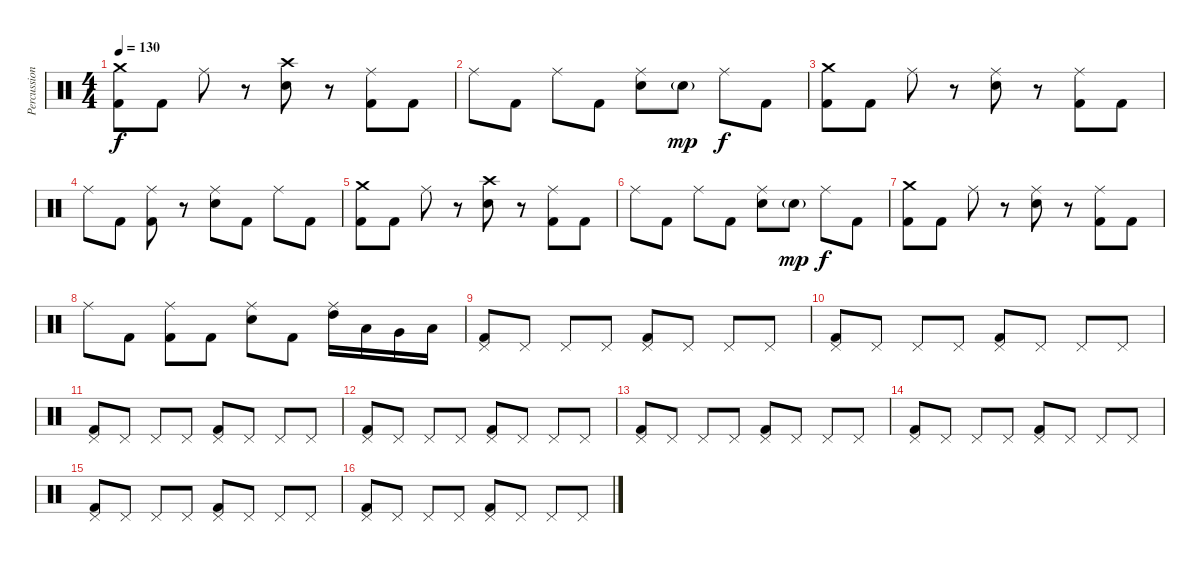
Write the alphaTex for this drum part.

\track ("Percussion" "Percussion") {instrument percussion}
\staff {score}
\articulation defaults
\ts (4 4)
\tempo 130
\clef neutral
\ks c
("Crash medium (hit)" "Kick (hit) 2").8{dy f} "Kick (hit) 2".8 "Ride (middle)".8 r.8 ("Crash high (hit)" "Snare (hit) 2").8 r.8 ("Ride (middle)" "Kick (hit) 2").8 "Kick (hit) 2".8 |
"Ride (middle)".8 "Kick (hit) 2".8 "Ride (middle)".8 "Kick (hit) 2".8 ("Ride (middle)" "Snare (hit) 2").8 "Snare (hit) 2"{g}.8{dy mp} "Ride (middle)".8{dy f} "Kick (hit) 2".8 |
("Crash medium (hit)" "Kick (hit) 2").8 "Kick (hit) 2".8 "Ride (middle)".8 r.8 ("Ride (middle)" "Snare (hit) 2").8 r.8 ("Ride (middle)" "Kick (hit) 2").8 "Kick (hit) 2".8 |
"Ride (middle)".8 "Kick (hit) 2".8 ("Ride (middle)" "Kick (hit) 2").8 r.8 ("Ride (middle)" "Snare (hit) 2").8 "Kick (hit) 2".8 "Ride (middle)".8 "Kick (hit) 2".8 |
("Crash medium (hit)" "Kick (hit) 2").8 "Kick (hit) 2".8 "Ride (middle)".8 r.8 ("Crash high (hit)" "Snare (hit) 2").8 r.8 ("Ride (middle)" "Kick (hit) 2").8 "Kick (hit) 2".8 |
"Ride (middle)".8 "Kick (hit) 2".8 "Ride (middle)".8 "Kick (hit) 2".8 ("Ride (middle)" "Snare (hit) 2").8 "Snare (hit) 2"{g}.8{dy mp} "Ride (middle)".8{dy f} "Kick (hit) 2".8 |
("Crash medium (hit)" "Kick (hit) 2").8 "Kick (hit) 2".8 "Ride (middle)".8 r.8 ("Ride (middle)" "Snare (hit) 2").8 r.8 ("Ride (middle)" "Kick (hit) 2").8 "Kick (hit) 2".8 |
"Ride (middle)".8 "Kick (hit) 2".8 ("Ride (middle)" "Kick (hit) 2").8 "Kick (hit) 2".8 ("Ride (middle)" "Snare (hit) 2").8 "Kick (hit) 2".8 ("Ride (middle)" "High Tom (hit)").16 "Low Tom (hit)".16 "Very Low Tom (hit)".16 "Low Floor Tom (hit)".16 |
("Pedal Hi-Hat (hit)" "Kick (hit) 2").8 "Pedal Hi-Hat (hit)".8 "Pedal Hi-Hat (hit)".8 "Pedal Hi-Hat (hit)".8 ("Pedal Hi-Hat (hit)" "Kick (hit) 2").8 "Pedal Hi-Hat (hit)".8 "Pedal Hi-Hat (hit)".8 "Pedal Hi-Hat (hit)".8 |
("Pedal Hi-Hat (hit)" "Kick (hit) 2").8 "Pedal Hi-Hat (hit)".8 "Pedal Hi-Hat (hit)".8 "Pedal Hi-Hat (hit)".8 ("Pedal Hi-Hat (hit)" "Kick (hit) 2").8 "Pedal Hi-Hat (hit)".8 "Pedal Hi-Hat (hit)".8 "Pedal Hi-Hat (hit)".8 |
("Pedal Hi-Hat (hit)" "Kick (hit) 2").8 "Pedal Hi-Hat (hit)".8 "Pedal Hi-Hat (hit)".8 "Pedal Hi-Hat (hit)".8 ("Pedal Hi-Hat (hit)" "Kick (hit) 2").8 "Pedal Hi-Hat (hit)".8 "Pedal Hi-Hat (hit)".8 "Pedal Hi-Hat (hit)".8 |
("Pedal Hi-Hat (hit)" "Kick (hit) 2").8 "Pedal Hi-Hat (hit)".8 "Pedal Hi-Hat (hit)".8 "Pedal Hi-Hat (hit)".8 ("Pedal Hi-Hat (hit)" "Kick (hit) 2").8 "Pedal Hi-Hat (hit)".8 "Pedal Hi-Hat (hit)".8 "Pedal Hi-Hat (hit)".8 |
("Pedal Hi-Hat (hit)" "Kick (hit) 2").8 "Pedal Hi-Hat (hit)".8 "Pedal Hi-Hat (hit)".8 "Pedal Hi-Hat (hit)".8 ("Pedal Hi-Hat (hit)" "Kick (hit) 2").8 "Pedal Hi-Hat (hit)".8 "Pedal Hi-Hat (hit)".8 "Pedal Hi-Hat (hit)".8 |
("Pedal Hi-Hat (hit)" "Kick (hit) 2").8 "Pedal Hi-Hat (hit)".8 "Pedal Hi-Hat (hit)".8 "Pedal Hi-Hat (hit)".8 ("Pedal Hi-Hat (hit)" "Kick (hit) 2").8 "Pedal Hi-Hat (hit)".8 "Pedal Hi-Hat (hit)".8 "Pedal Hi-Hat (hit)".8 |
("Pedal Hi-Hat (hit)" "Kick (hit) 2").8 "Pedal Hi-Hat (hit)".8 "Pedal Hi-Hat (hit)".8 "Pedal Hi-Hat (hit)".8 ("Pedal Hi-Hat (hit)" "Kick (hit) 2").8 "Pedal Hi-Hat (hit)".8 "Pedal Hi-Hat (hit)".8 "Pedal Hi-Hat (hit)".8 |
("Pedal Hi-Hat (hit)" "Kick (hit) 2").8 "Pedal Hi-Hat (hit)".8 "Pedal Hi-Hat (hit)".8 "Pedal Hi-Hat (hit)".8 ("Pedal Hi-Hat (hit)" "Kick (hit) 2").8 "Pedal Hi-Hat (hit)".8 "Pedal Hi-Hat (hit)".8 "Pedal Hi-Hat (hit)".8
